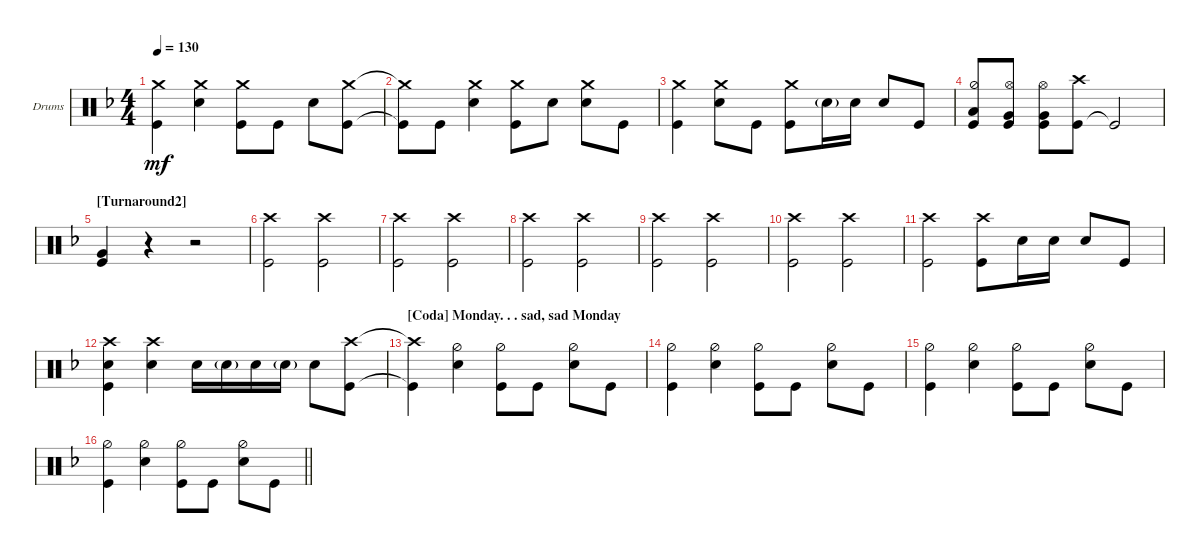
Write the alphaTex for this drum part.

\defaultSystemsLayout 4
\bracketExtendMode groupsimilarinstruments
\firstSystemTrackNameOrientation horizontal
\otherSystemsTrackNameOrientation horizontal
\track ("Drumkit" "Drums") {instrument percussion}
\staff {score}
\articulation defaults
\ts (4 4)
\tempo 130
\clef neutral
\ks dminor
("Crash medium (hit)" "Kick (hit)").4{dy mf} ("Crash medium (hit)" "Snare (hit) 2").4 ("Crash medium (hit)" "Kick (hit)").8 "Kick (hit)".8 "Snare (hit) 2".8 ("Crash medium (hit)" "Kick (hit)").8 |
("Crash medium (hit)"{t} "Kick (hit)"{t}).8 "Kick (hit)".8 ("Snare (hit) 2" "Crash medium (hit)").4 ("Kick (hit)" "Crash medium (hit)").8 "Snare (hit) 2".8 ("Snare (hit) 2" "Crash medium (hit)").8 "Kick (hit)".8 |
("Crash medium (hit)" "Kick (hit)").4 ("Snare (hit) 2" "Crash medium (hit)").8 "Kick (hit)".8 ("Crash medium (hit)" "Kick (hit)").8 "Snare (hit) 2"{g}.16 "Snare (hit) 2".16 "Snare (hit) 2".8 "Kick (hit)".8 |
("Kick (hit)" "Hi-Hat (half)" "Low Tom (hit)").8 ("Kick (hit)" "Hi-Hat (open)" "Very Low Tom (hit)").8 ("Kick (hit)" "Hi-Hat (open)" "Very Low Tom (hit)").8 ("Kick (hit)" "Crash high (hit)").8 "Kick (hit)"{t}.2 |
\section ("" "[Turnaround2] ")
("Kick (hit)" "Very Low Tom (hit)").4 r.4 r.2 |
("Kick (hit)" "Crash high (hit)").2 ("Kick (hit)" "Crash high (hit)").2 |
("Kick (hit)" "Crash high (hit)").2 ("Kick (hit)" "Crash high (hit)").2 |
("Kick (hit)" "Crash high (hit)").2 ("Kick (hit)" "Crash high (hit)").2 |
("Kick (hit)" "Crash high (hit)").2 ("Kick (hit)" "Crash high (hit)").2 |
("Kick (hit)" "Crash high (hit)").2 ("Kick (hit)" "Crash high (hit)").2 |
("Kick (hit)" "Crash high (hit)").2 ("Kick (hit)" "Crash high (hit)").8 "Snare (hit) 2".16 "Snare (hit) 2".16 "Snare (hit) 2".8 "Kick (hit)".8 |
("Kick (hit)" "Crash high (hit)" "Snare (hit) 2").4 ("Crash high (hit)" "Snare (hit) 2").4 "Snare (hit) 2".16 "Snare (hit) 2"{g}.16 "Snare (hit) 2".16 "Snare (hit) 2"{g}.16 "Snare (hit) 2".8 ("Kick (hit)" "Crash high (hit)").8 |
\section ("" "[Coda] Monday. . . sad, sad Monday")
("Kick (hit)"{t} "Crash high (hit)"{t}).4 ("Hi-Hat (half)" "Snare (hit) 2").4 ("Kick (hit)" "Hi-Hat (half)").8 "Kick (hit)".8 ("Snare (hit) 2" "Hi-Hat (half)").8 "Kick (hit)".8 |
("Kick (hit)" "Hi-Hat (half)").4 ("Hi-Hat (half)" "Snare (hit) 2").4 ("Kick (hit)" "Hi-Hat (half)").8 "Kick (hit)".8 ("Snare (hit) 2" "Hi-Hat (half)").8 "Kick (hit)".8 |
("Kick (hit)" "Hi-Hat (half)").4 ("Hi-Hat (half)" "Snare (hit) 2").4 ("Kick (hit)" "Hi-Hat (half)").8 "Kick (hit)".8 ("Snare (hit) 2" "Hi-Hat (half)").8 "Kick (hit)".8 |
\barLineRight lightlight
("Kick (hit)" "Hi-Hat (half)").4 ("Hi-Hat (half)" "Snare (hit) 2").4 ("Kick (hit)" "Hi-Hat (half)").8 "Kick (hit)".8 ("Snare (hit) 2" "Hi-Hat (half)").8 "Kick (hit)".8
